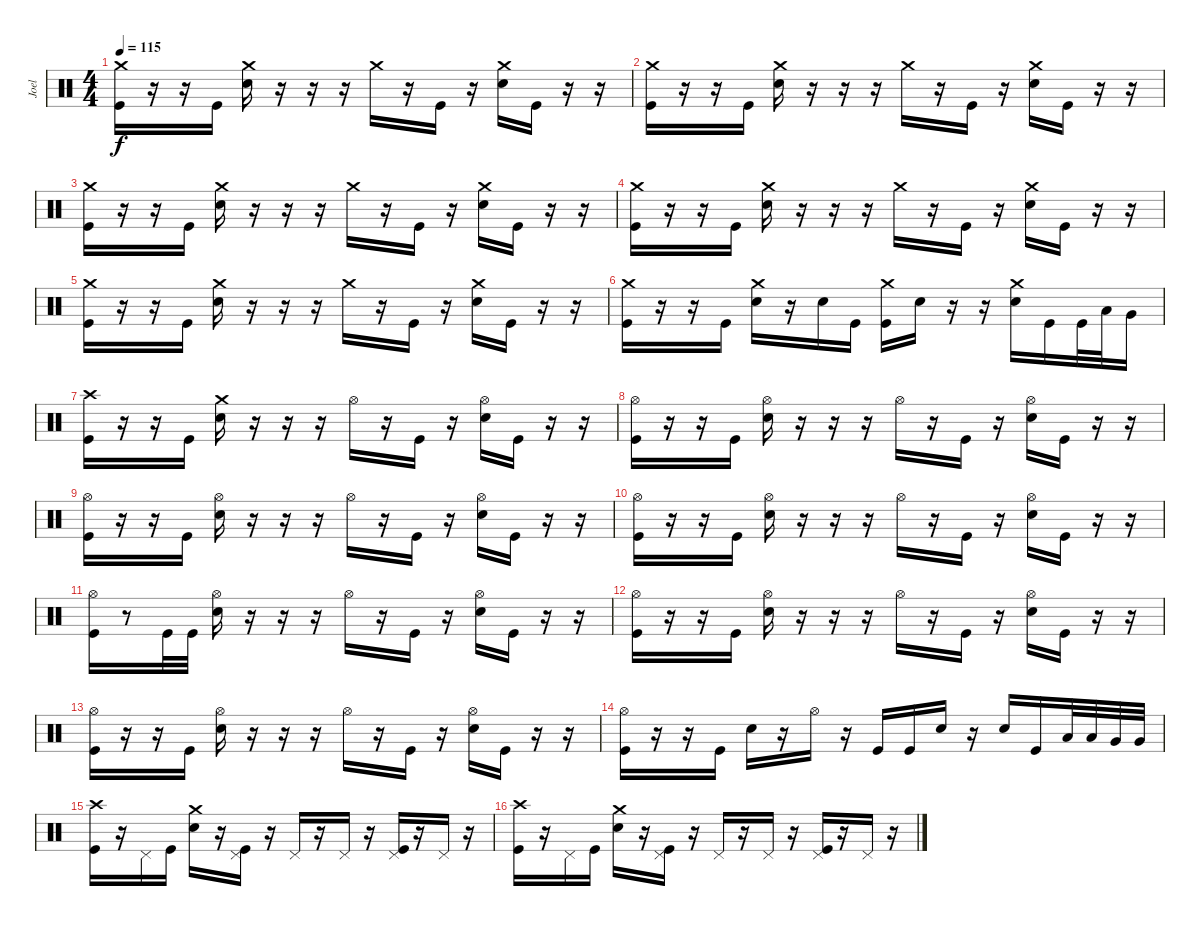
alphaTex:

\track ("Joel" "Joel") {instrument percussion}
\staff {score}
\articulation defaults
\ts (4 4)
\tempo 115
\clef neutral
\ks c
("Crash medium (hit)" "Kick (hit)").16{dy f} r.16 r.16 "Kick (hit)".16 ("Crash medium (hit)" "Electric Snare (hit)").16 r.16 r.16 r.16 "Crash medium (hit)".16 r.16 "Kick (hit)".16 r.16 ("Crash medium (hit)" "Electric Snare (hit)").16 "Kick (hit)".16 r.16 r.16 |
("Crash medium (hit)" "Kick (hit)").16 r.16 r.16 "Kick (hit)".16 ("Crash medium (hit)" "Electric Snare (hit)").16 r.16 r.16 r.16 "Crash medium (hit)".16 r.16 "Kick (hit)".16 r.16 ("Crash medium (hit)" "Electric Snare (hit)").16 "Kick (hit)".16 r.16 r.16 |
("Crash medium (hit)" "Kick (hit)").16 r.16 r.16 "Kick (hit)".16 ("Crash medium (hit)" "Electric Snare (hit)").16 r.16 r.16 r.16 "Crash medium (hit)".16 r.16 "Kick (hit)".16 r.16 ("Crash medium (hit)" "Electric Snare (hit)").16 "Kick (hit)".16 r.16 r.16 |
("Crash medium (hit)" "Kick (hit)").16 r.16 r.16 "Kick (hit)".16 ("Crash medium (hit)" "Electric Snare (hit)").16 r.16 r.16 r.16 "Crash medium (hit)".16 r.16 "Kick (hit)".16 r.16 ("Crash medium (hit)" "Electric Snare (hit)").16 "Kick (hit)".16 r.16 r.16 |
("Crash medium (hit)" "Kick (hit)").16 r.16 r.16 "Kick (hit)".16 ("Crash medium (hit)" "Electric Snare (hit)").16 r.16 r.16 r.16 "Crash medium (hit)".16 r.16 "Kick (hit)".16 r.16 ("Crash medium (hit)" "Electric Snare (hit)").16 "Kick (hit)".16 r.16 r.16 |
("Crash medium (hit)" "Kick (hit)").16 r.16 r.16 "Kick (hit)".16 ("Crash medium (hit)" "Electric Snare (hit)").16 r.16 "Electric Snare (hit)".16 "Kick (hit)".16 ("Crash medium (hit)" "Kick (hit)").16 "Electric Snare (hit)".16 r.16 r.16 ("Crash medium (hit)" "Electric Snare (hit)").16 "Kick (hit)".16 "Kick (hit)".32 "Low Tom (hit)".32 "Very Low Tom (hit)".16 |
("Crash high (hit)" "Kick (hit)").16 r.16 r.16 "Kick (hit)".16 ("Crash medium (hit)" "Electric Snare (hit)").16 r.16 r.16 r.16 "Hi-Hat (open)".16 r.16 "Kick (hit)".16 r.16 ("Hi-Hat (open)" "Electric Snare (hit)").16 "Kick (hit)".16 r.16 r.16 |
("Hi-Hat (open)" "Kick (hit)").16 r.16 r.16 "Kick (hit)".16 ("Hi-Hat (open)" "Electric Snare (hit)").16 r.16 r.16 r.16 "Hi-Hat (open)".16 r.16 "Kick (hit)".16 r.16 ("Hi-Hat (open)" "Electric Snare (hit)").16 "Kick (hit)".16 r.16 r.16 |
("Hi-Hat (open)" "Kick (hit)").16 r.16 r.16 "Kick (hit)".16 ("Hi-Hat (open)" "Electric Snare (hit)").16 r.16 r.16 r.16 "Hi-Hat (open)".16 r.16 "Kick (hit)".16 r.16 ("Hi-Hat (open)" "Electric Snare (hit)").16 "Kick (hit)".16 r.16 r.16 |
("Hi-Hat (open)" "Kick (hit)").16 r.16 r.16 "Kick (hit)".16 ("Hi-Hat (open)" "Electric Snare (hit)").16 r.16 r.16 r.16 "Hi-Hat (open)".16 r.16 "Kick (hit)".16 r.16 ("Hi-Hat (open)" "Electric Snare (hit)").16 "Kick (hit)".16 r.16 r.16 |
("Hi-Hat (open)" "Kick (hit)").16 r.8 "Kick (hit)".32 "Kick (hit)".32 ("Hi-Hat (open)" "Electric Snare (hit)").16 r.16 r.16 r.16 "Hi-Hat (open)".16 r.16 "Kick (hit)".16 r.16 ("Hi-Hat (open)" "Electric Snare (hit)").16 "Kick (hit)".16 r.16 r.16 |
("Hi-Hat (open)" "Kick (hit)").16 r.16 r.16 "Kick (hit)".16 ("Hi-Hat (open)" "Electric Snare (hit)").16 r.16 r.16 r.16 "Hi-Hat (open)".16 r.16 "Kick (hit)".16 r.16 ("Hi-Hat (open)" "Electric Snare (hit)").16 "Kick (hit)".16 r.16 r.16 |
("Hi-Hat (open)" "Kick (hit)").16 r.16 r.16 "Kick (hit)".16 ("Hi-Hat (open)" "Electric Snare (hit)").16 r.16 r.16 r.16 "Hi-Hat (open)".16 r.16 "Kick (hit)".16 r.16 ("Hi-Hat (open)" "Electric Snare (hit)").16 "Kick (hit)".16 r.16 r.16 |
("Hi-Hat (open)" "Kick (hit)").16 r.16 r.16 "Kick (hit)".16 "Electric Snare (hit)".16 r.16 "Hi-Hat (open)".16 r.16 "Kick (hit)".16 "Kick (hit)".16 "Electric Snare (hit)".16 r.16 "Electric Snare (hit)".16 "Kick (hit)".16 "Low Tom (hit)".32 "Low Tom (hit)".32 "Very Low Tom (hit)".32 "Very Low Tom (hit)".32 |
("Crash high (hit)" "Kick (hit)").16 r.16 "Pedal Hi-Hat (hit)".16 "Kick (hit)".16 ("Crash medium (hit)" "Electric Snare (hit)").16 r.16 ("Pedal Hi-Hat (hit)" "Kick (hit)").16 r.16 "Pedal Hi-Hat (hit)".16 r.16 "Pedal Hi-Hat (hit)".16 r.16 ("Pedal Hi-Hat (hit)" "Kick (hit)").16 r.16 "Pedal Hi-Hat (hit)".16 r.16 |
("Crash high (hit)" "Kick (hit)").16 r.16 "Pedal Hi-Hat (hit)".16 "Kick (hit)".16 ("Crash medium (hit)" "Electric Snare (hit)").16 r.16 ("Pedal Hi-Hat (hit)" "Kick (hit)").16 r.16 "Pedal Hi-Hat (hit)".16 r.16 "Pedal Hi-Hat (hit)".16 r.16 ("Pedal Hi-Hat (hit)" "Kick (hit)").16 r.16 "Pedal Hi-Hat (hit)".16 r.16
